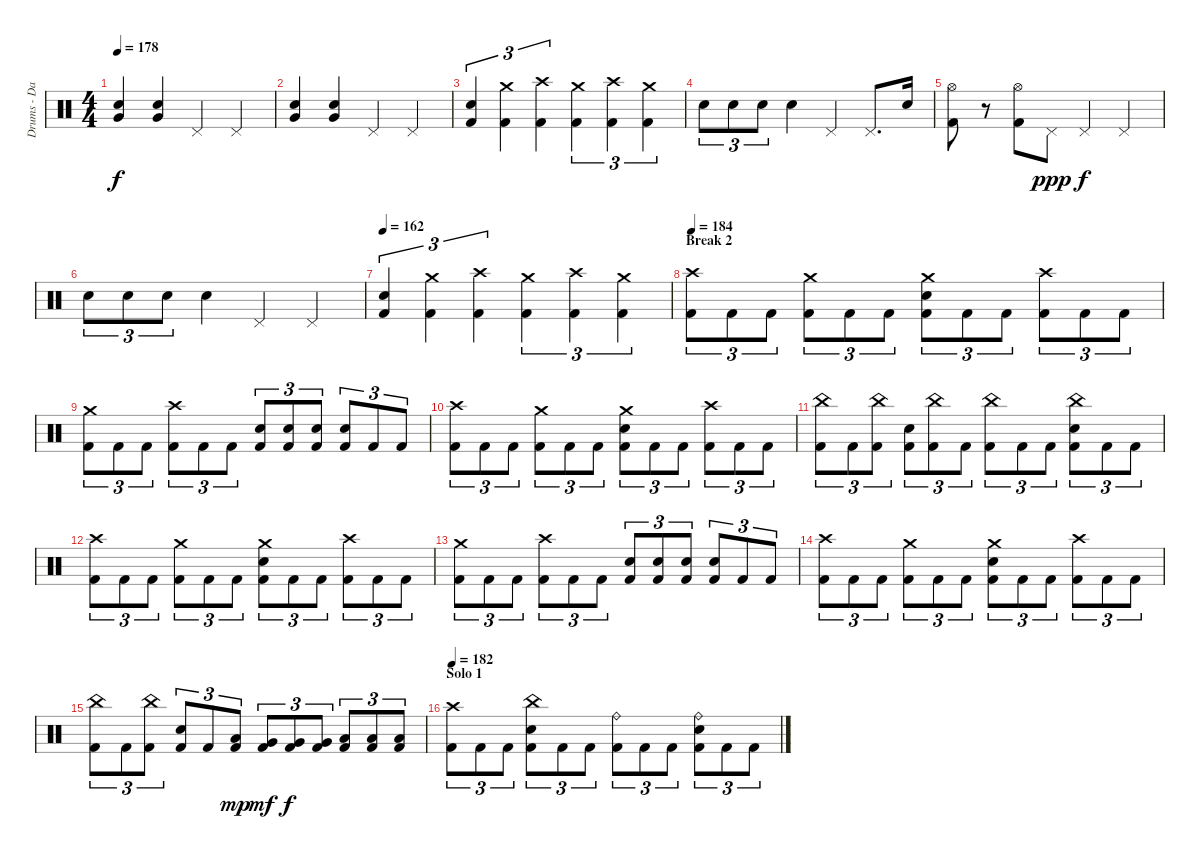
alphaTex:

\track ("Drums - Dan Zimmermann" "Drums - Da") {instrument percussion}
\staff {score}
\articulation defaults
\ts (4 4)
\tempo 178
\clef neutral
\ks c
("Electric Snare (hit)" "Very Low Tom (hit)").4{dy f} ("Electric Snare (hit)" "Very Low Tom (hit)").4 "Pedal Hi-Hat (hit)".4 "Pedal Hi-Hat (hit)".4 |
("Electric Snare (hit)" "Very Low Tom (hit)").4 ("Electric Snare (hit)" "Very Low Tom (hit)").4 "Pedal Hi-Hat (hit)".4 "Pedal Hi-Hat (hit)".4 |
("Kick (hit) 2" "Electric Snare (hit)").4{tu (3 2)} ("Kick (hit) 2" "Crash medium (hit)").4{tu (3 2)} ("Kick (hit) 2" "Crash high (hit)").4{tu (3 2)} ("Kick (hit) 2" "Crash medium (hit)").4{tu (3 2)} ("Kick (hit) 2" "Crash high (hit)").4{tu (3 2)} ("Kick (hit) 2" "Crash medium (hit)").4{tu (3 2)} |
"Electric Snare (hit)".8{tu (3 2)} "Electric Snare (hit)".8{tu (3 2)} "Electric Snare (hit)".8{tu (3 2)} "Electric Snare (hit)".4 "Pedal Hi-Hat (hit)".4 "Pedal Hi-Hat (hit)".8{d} "Electric Snare (hit)".16 |
("Kick (hit) 2" "Hi-Hat (open)").8 r.8 ("Kick (hit) 2" "Hi-Hat (open)").8 "Pedal Hi-Hat (hit)".8{dy ppp} "Pedal Hi-Hat (hit)".4{dy f} "Pedal Hi-Hat (hit)".4 |
"Electric Snare (hit)".8{tu (3 2)} "Electric Snare (hit)".8{tu (3 2)} "Electric Snare (hit)".8{tu (3 2)} "Electric Snare (hit)".4 "Pedal Hi-Hat (hit)".4 "Pedal Hi-Hat (hit)".4 |
\tempo 162
("Kick (hit) 2" "Electric Snare (hit)").4{tu (3 2)} ("Kick (hit) 2" "Crash medium (hit)").4{tu (3 2)} ("Kick (hit) 2" "Crash high (hit)").4{tu (3 2)} ("Kick (hit) 2" "Crash medium (hit)").4{tu (3 2)} ("Kick (hit) 2" "Crash high (hit)").4{tu (3 2)} ("Kick (hit) 2" "Crash medium (hit)").4{tu (3 2)} |
\section ("" "Break 2")
\tempo 184
("Kick (hit) 2" "Crash high (hit)").8{tu (3 2)} "Kick (hit) 2".8{tu (3 2)} "Kick (hit) 2".8{tu (3 2)} ("Kick (hit) 2" "Crash medium (hit)").8{tu (3 2)} "Kick (hit) 2".8{tu (3 2)} "Kick (hit) 2".8{tu (3 2)} ("Kick (hit) 2" "Electric Snare (hit)" "Crash medium (hit)").8{tu (3 2)} "Kick (hit) 2".8{tu (3 2)} "Kick (hit) 2".8{tu (3 2)} ("Kick (hit) 2" "Crash high (hit)").8{tu (3 2)} "Kick (hit) 2".8{tu (3 2)} "Kick (hit) 2".8{tu (3 2)} |
("Kick (hit) 2" "Crash medium (hit)").8{tu (3 2)} "Kick (hit) 2".8{tu (3 2)} "Kick (hit) 2".8{tu (3 2)} ("Kick (hit) 2" "Crash high (hit)").8{tu (3 2)} "Kick (hit) 2".8{tu (3 2)} "Kick (hit) 2".8{tu (3 2)} ("Kick (hit) 2" "Electric Snare (hit)").8{tu (3 2)} ("Kick (hit) 2" "Electric Snare (hit)").8{tu (3 2)} ("Kick (hit) 2" "Electric Snare (hit)").8{tu (3 2)} ("Kick (hit) 2" "Electric Snare (hit)").8{tu (3 2)} "Kick (hit) 2".8{tu (3 2)} "Kick (hit) 2".8{tu (3 2)} |
("Kick (hit) 2" "Crash high (hit)").8{tu (3 2)} "Kick (hit) 2".8{tu (3 2)} "Kick (hit) 2".8{tu (3 2)} ("Kick (hit) 2" "Crash medium (hit)").8{tu (3 2)} "Kick (hit) 2".8{tu (3 2)} "Kick (hit) 2".8{tu (3 2)} ("Kick (hit) 2" "Electric Snare (hit)" "Crash medium (hit)").8{tu (3 2)} "Kick (hit) 2".8{tu (3 2)} "Kick (hit) 2".8{tu (3 2)} ("Kick (hit) 2" "Crash high (hit)").8{tu (3 2)} "Kick (hit) 2".8{tu (3 2)} "Kick (hit) 2".8{tu (3 2)} |
("Kick (hit) 2" "China (hit)").8{tu (3 2)} "Kick (hit) 2".8{tu (3 2)} ("Kick (hit) 2" "China (hit)").8{tu (3 2)} ("Kick (hit) 2" "Electric Snare (hit)").8{tu (3 2)} ("Kick (hit) 2" "China (hit)").8{tu (3 2)} "Kick (hit) 2".8{tu (3 2)} ("Kick (hit) 2" "China (hit)").8{tu (3 2)} "Kick (hit) 2".8{tu (3 2)} "Kick (hit) 2".8{tu (3 2)} ("Kick (hit) 2" "Electric Snare (hit)" "China (hit)").8{tu (3 2)} "Kick (hit) 2".8{tu (3 2)} "Kick (hit) 2".8{tu (3 2)} |
("Kick (hit) 2" "Crash high (hit)").8{tu (3 2)} "Kick (hit) 2".8{tu (3 2)} "Kick (hit) 2".8{tu (3 2)} ("Kick (hit) 2" "Crash medium (hit)").8{tu (3 2)} "Kick (hit) 2".8{tu (3 2)} "Kick (hit) 2".8{tu (3 2)} ("Kick (hit) 2" "Electric Snare (hit)" "Crash medium (hit)").8{tu (3 2)} "Kick (hit) 2".8{tu (3 2)} "Kick (hit) 2".8{tu (3 2)} ("Kick (hit) 2" "Crash high (hit)").8{tu (3 2)} "Kick (hit) 2".8{tu (3 2)} "Kick (hit) 2".8{tu (3 2)} |
("Kick (hit) 2" "Crash medium (hit)").8{tu (3 2)} "Kick (hit) 2".8{tu (3 2)} "Kick (hit) 2".8{tu (3 2)} ("Kick (hit) 2" "Crash high (hit)").8{tu (3 2)} "Kick (hit) 2".8{tu (3 2)} "Kick (hit) 2".8{tu (3 2)} ("Kick (hit) 2" "Electric Snare (hit)").8{tu (3 2)} ("Kick (hit) 2" "Electric Snare (hit)").8{tu (3 2)} ("Kick (hit) 2" "Electric Snare (hit)").8{tu (3 2)} ("Kick (hit) 2" "Electric Snare (hit)").8{tu (3 2)} "Kick (hit) 2".8{tu (3 2)} "Kick (hit) 2".8{tu (3 2)} |
("Kick (hit) 2" "Crash high (hit)").8{tu (3 2)} "Kick (hit) 2".8{tu (3 2)} "Kick (hit) 2".8{tu (3 2)} ("Kick (hit) 2" "Crash medium (hit)").8{tu (3 2)} "Kick (hit) 2".8{tu (3 2)} "Kick (hit) 2".8{tu (3 2)} ("Kick (hit) 2" "Electric Snare (hit)" "Crash medium (hit)").8{tu (3 2)} "Kick (hit) 2".8{tu (3 2)} "Kick (hit) 2".8{tu (3 2)} ("Kick (hit) 2" "Crash high (hit)").8{tu (3 2)} "Kick (hit) 2".8{tu (3 2)} "Kick (hit) 2".8{tu (3 2)} |
("Kick (hit) 2" "China (hit)").8{tu (3 2)} "Kick (hit) 2".8{tu (3 2)} ("Kick (hit) 2" "China (hit)").8{tu (3 2)} ("Kick (hit) 2" "Electric Snare (hit)").8{tu (3 2)} "Kick (hit) 2".8{tu (3 2)} ("Kick (hit) 2" "Low Tom (hit)").8{tu (3 2) dy mp} ("Kick (hit) 2" "Very Low Tom (hit)").8{tu (3 2) dy mf} ("Kick (hit) 2" "Very Low Tom (hit)").8{tu (3 2) dy f} ("Kick (hit) 2" "Very Low Tom (hit)").8{tu (3 2)} ("Kick (hit) 2" "Low Floor Tom (hit)").8{tu (3 2)} ("Kick (hit) 2" "Low Floor Tom (hit)").8{tu (3 2)} ("Kick (hit) 2" "Low Floor Tom (hit)").8{tu (3 2)} |
\section ("" "Solo 1")
\tempo 182
("Kick (hit) 2" "Crash high (hit)").8{tu (3 2)} "Kick (hit) 2".8{tu (3 2)} "Kick (hit) 2".8{tu (3 2)} ("Kick (hit) 2" "Electric Snare (hit)" "China (hit)").8{tu (3 2)} "Kick (hit) 2".8{tu (3 2)} "Kick (hit) 2".8{tu (3 2)} ("Kick (hit) 2" "Ride (bell)").8{tu (3 2)} "Kick (hit) 2".8{tu (3 2)} "Kick (hit) 2".8{tu (3 2)} ("Kick (hit) 2" "Electric Snare (hit)" "Ride (bell)").8{tu (3 2)} "Kick (hit) 2".8{tu (3 2)} "Kick (hit) 2".8{tu (3 2)}
